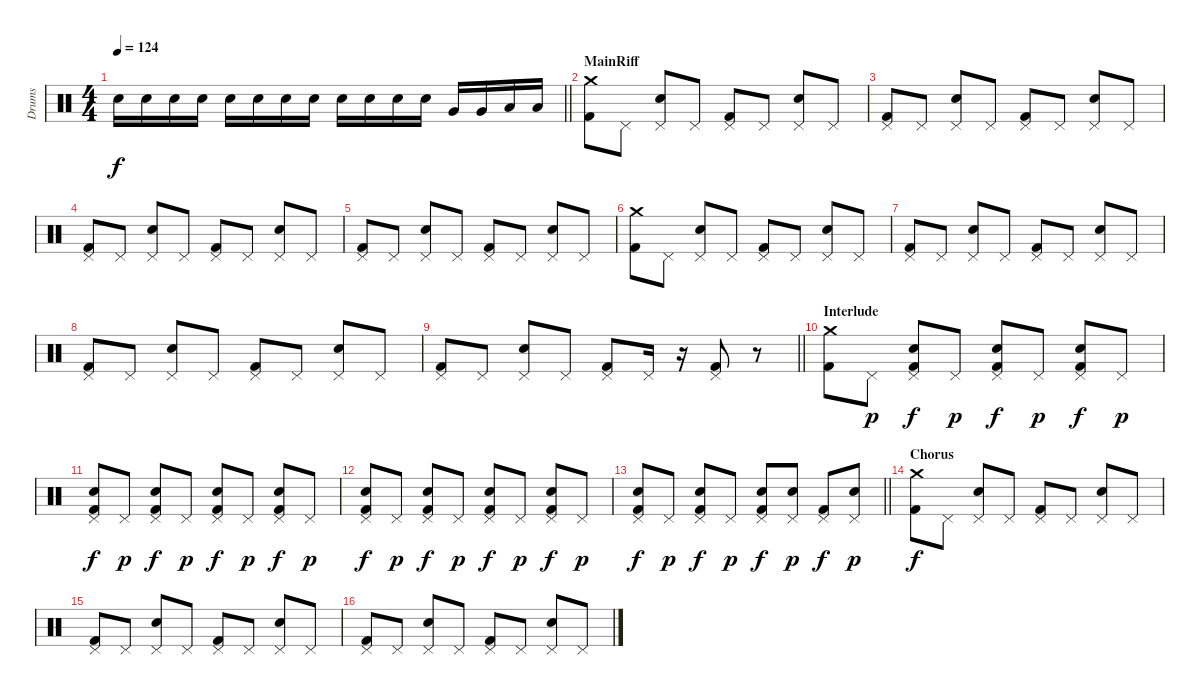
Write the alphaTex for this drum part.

\track ("Drums" "Drums") {instrument percussion}
\staff {score}
\articulation defaults
\ts (4 4)
\tempo 124
\clef neutral
\barLineRight lightlight
\ks c "Electric Snare (hit)".16{dy f} "Electric Snare (hit)".16 "Electric Snare (hit)".16 "Electric Snare (hit)".16 "Electric Snare (hit)".16 "Electric Snare (hit)".16 "Electric Snare (hit)".16 "Electric Snare (hit)".16 "Electric Snare (hit)".16 "Electric Snare (hit)".16 "Electric Snare (hit)".16 "Electric Snare (hit)".16 "Very Low Tom (hit)".16 "Very Low Tom (hit)".16 "Low Floor Tom (hit)".16 "Low Floor Tom (hit)".16
|
\section ("" "MainRiff")
("Kick (hit) 2" "Crash medium (hit)").8 "Pedal Hi-Hat (hit)".8 ("Electric Snare (hit)" "Pedal Hi-Hat (hit)").8 "Pedal Hi-Hat (hit)".8 ("Kick (hit) 2" "Pedal Hi-Hat (hit)").8 "Pedal Hi-Hat (hit)".8 ("Electric Snare (hit)" "Pedal Hi-Hat (hit)").8 "Pedal Hi-Hat (hit)".8 |
("Kick (hit) 2" "Pedal Hi-Hat (hit)").8 "Pedal Hi-Hat (hit)".8 ("Electric Snare (hit)" "Pedal Hi-Hat (hit)").8 "Pedal Hi-Hat (hit)".8 ("Kick (hit) 2" "Pedal Hi-Hat (hit)").8 "Pedal Hi-Hat (hit)".8 ("Electric Snare (hit)" "Pedal Hi-Hat (hit)").8 "Pedal Hi-Hat (hit)".8 |
("Kick (hit) 2" "Pedal Hi-Hat (hit)").8 "Pedal Hi-Hat (hit)".8 ("Electric Snare (hit)" "Pedal Hi-Hat (hit)").8 "Pedal Hi-Hat (hit)".8 ("Kick (hit) 2" "Pedal Hi-Hat (hit)").8 "Pedal Hi-Hat (hit)".8 ("Electric Snare (hit)" "Pedal Hi-Hat (hit)").8 "Pedal Hi-Hat (hit)".8 |
("Kick (hit) 2" "Pedal Hi-Hat (hit)").8 "Pedal Hi-Hat (hit)".8 ("Electric Snare (hit)" "Pedal Hi-Hat (hit)").8 "Pedal Hi-Hat (hit)".8 ("Kick (hit) 2" "Pedal Hi-Hat (hit)").8 "Pedal Hi-Hat (hit)".8 ("Electric Snare (hit)" "Pedal Hi-Hat (hit)").8 "Pedal Hi-Hat (hit)".8 |
("Kick (hit) 2" "Crash medium (hit)").8 "Pedal Hi-Hat (hit)".8 ("Electric Snare (hit)" "Pedal Hi-Hat (hit)").8 "Pedal Hi-Hat (hit)".8 ("Kick (hit) 2" "Pedal Hi-Hat (hit)").8 "Pedal Hi-Hat (hit)".8 ("Electric Snare (hit)" "Pedal Hi-Hat (hit)").8 "Pedal Hi-Hat (hit)".8 |
("Kick (hit) 2" "Pedal Hi-Hat (hit)").8 "Pedal Hi-Hat (hit)".8 ("Electric Snare (hit)" "Pedal Hi-Hat (hit)").8 "Pedal Hi-Hat (hit)".8 ("Kick (hit) 2" "Pedal Hi-Hat (hit)").8 "Pedal Hi-Hat (hit)".8 ("Electric Snare (hit)" "Pedal Hi-Hat (hit)").8 "Pedal Hi-Hat (hit)".8 |
("Kick (hit) 2" "Pedal Hi-Hat (hit)").8 "Pedal Hi-Hat (hit)".8 ("Electric Snare (hit)" "Pedal Hi-Hat (hit)").8 "Pedal Hi-Hat (hit)".8 ("Kick (hit) 2" "Pedal Hi-Hat (hit)").8 "Pedal Hi-Hat (hit)".8 ("Electric Snare (hit)" "Pedal Hi-Hat (hit)").8 "Pedal Hi-Hat (hit)".8 |
\barLineRight lightlight
("Kick (hit) 2" "Pedal Hi-Hat (hit)").8 "Pedal Hi-Hat (hit)".8 ("Electric Snare (hit)" "Pedal Hi-Hat (hit)").8 "Pedal Hi-Hat (hit)".8 ("Kick (hit) 2" "Pedal Hi-Hat (hit)").8 "Pedal Hi-Hat (hit)".16 r.16 ("Kick (hit) 2" "Pedal Hi-Hat (hit)").8 r.8 |
\section ("" "Interlude")
("Kick (hit) 2" "Crash medium (hit)").8 "Pedal Hi-Hat (hit)".8{dy p} ("Kick (hit) 2" "Hand Clap (hit)" "Pedal Hi-Hat (hit)").8{dy f} "Pedal Hi-Hat (hit)".8{dy p} ("Kick (hit) 2" "Hand Clap (hit)" "Pedal Hi-Hat (hit)").8{dy f} "Pedal Hi-Hat (hit)".8{dy p} ("Kick (hit) 2" "Hand Clap (hit)" "Pedal Hi-Hat (hit)").8{dy f} "Pedal Hi-Hat (hit)".8{dy p} |
("Kick (hit) 2" "Hand Clap (hit)" "Pedal Hi-Hat (hit)").8{dy f} "Pedal Hi-Hat (hit)".8{dy p} ("Kick (hit) 2" "Hand Clap (hit)" "Pedal Hi-Hat (hit)").8{dy f} "Pedal Hi-Hat (hit)".8{dy p} ("Kick (hit) 2" "Hand Clap (hit)" "Pedal Hi-Hat (hit)").8{dy f} "Pedal Hi-Hat (hit)".8{dy p} ("Kick (hit) 2" "Hand Clap (hit)" "Pedal Hi-Hat (hit)").8{dy f} "Pedal Hi-Hat (hit)".8{dy p} |
("Kick (hit) 2" "Hand Clap (hit)" "Pedal Hi-Hat (hit)").8{dy f} "Pedal Hi-Hat (hit)".8{dy p} ("Kick (hit) 2" "Hand Clap (hit)" "Pedal Hi-Hat (hit)").8{dy f} "Pedal Hi-Hat (hit)".8{dy p} ("Kick (hit) 2" "Hand Clap (hit)" "Pedal Hi-Hat (hit)").8{dy f} "Pedal Hi-Hat (hit)".8{dy p} ("Kick (hit) 2" "Hand Clap (hit)" "Pedal Hi-Hat (hit)").8{dy f} "Pedal Hi-Hat (hit)".8{dy p} |
\barLineRight lightlight
("Kick (hit) 2" "Hand Clap (hit)" "Pedal Hi-Hat (hit)").8{dy f} "Pedal Hi-Hat (hit)".8{dy p} ("Kick (hit) 2" "Hand Clap (hit)" "Pedal Hi-Hat (hit)").8{dy f} "Pedal Hi-Hat (hit)".8{dy p} ("Kick (hit) 2" "Hand Clap (hit)" "Pedal Hi-Hat (hit)").8{dy f} ("Electric Snare (hit)" "Pedal Hi-Hat (hit)").8{dy p} ("Kick (hit) 2" "Pedal Hi-Hat (hit)").8{dy f} ("Electric Snare (hit)" "Pedal Hi-Hat (hit)").8{dy p} |
\section ("" "Chorus")
("Kick (hit) 2" "Crash medium (hit)").8{dy f} "Pedal Hi-Hat (hit)".8 ("Electric Snare (hit)" "Pedal Hi-Hat (hit)").8 "Pedal Hi-Hat (hit)".8 ("Kick (hit) 2" "Pedal Hi-Hat (hit)").8 "Pedal Hi-Hat (hit)".8 ("Electric Snare (hit)" "Pedal Hi-Hat (hit)").8 "Pedal Hi-Hat (hit)".8 |
("Kick (hit) 2" "Pedal Hi-Hat (hit)").8 "Pedal Hi-Hat (hit)".8 ("Electric Snare (hit)" "Pedal Hi-Hat (hit)").8 "Pedal Hi-Hat (hit)".8 ("Kick (hit) 2" "Pedal Hi-Hat (hit)").8 "Pedal Hi-Hat (hit)".8 ("Electric Snare (hit)" "Pedal Hi-Hat (hit)").8 "Pedal Hi-Hat (hit)".8 |
("Kick (hit) 2" "Pedal Hi-Hat (hit)").8 "Pedal Hi-Hat (hit)".8 ("Electric Snare (hit)" "Pedal Hi-Hat (hit)").8 "Pedal Hi-Hat (hit)".8 ("Kick (hit) 2" "Pedal Hi-Hat (hit)").8 "Pedal Hi-Hat (hit)".8 ("Electric Snare (hit)" "Pedal Hi-Hat (hit)").8 "Pedal Hi-Hat (hit)".8
